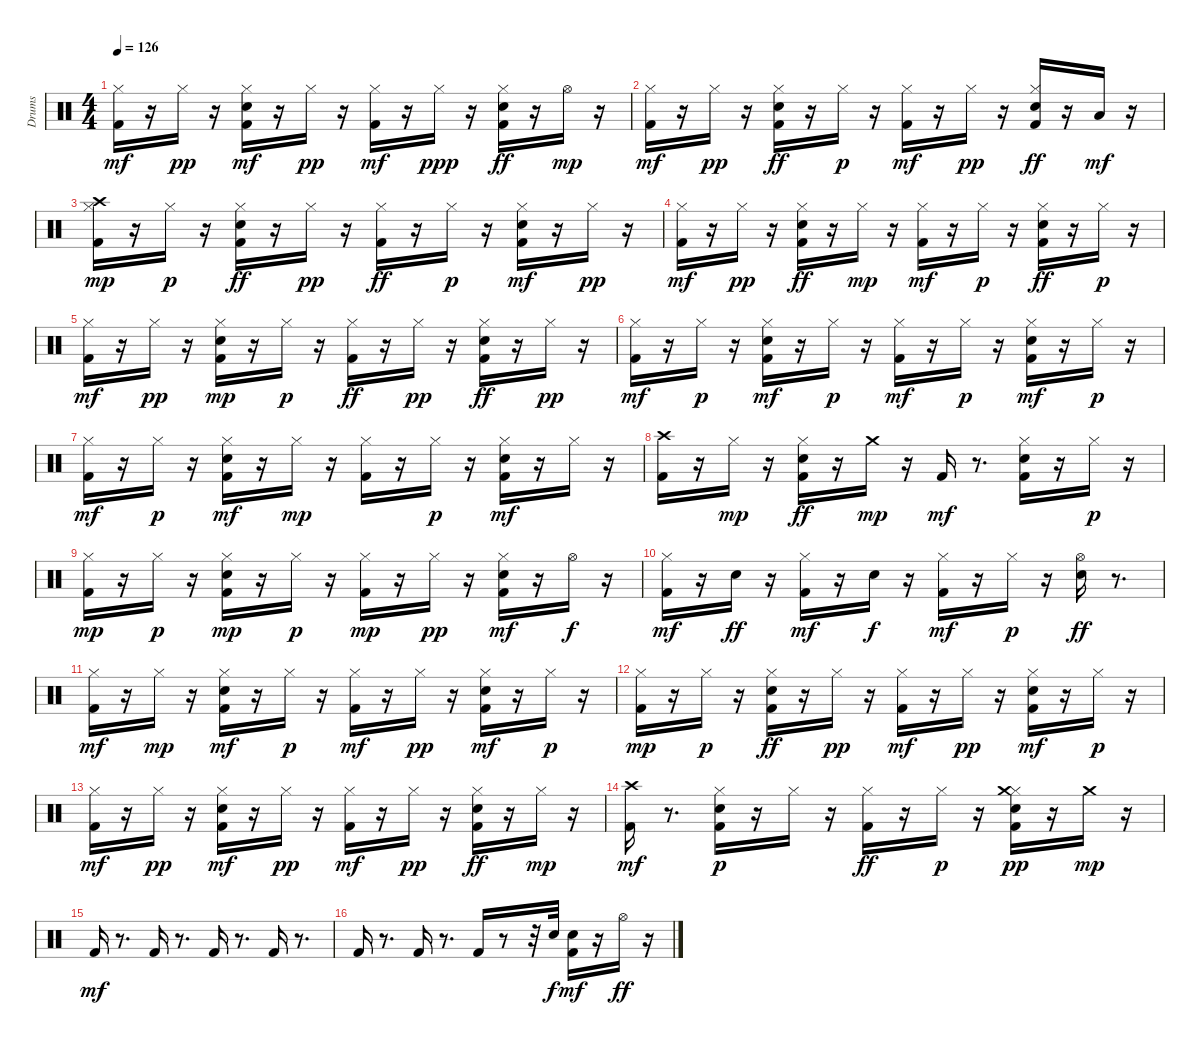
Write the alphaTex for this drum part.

\track ("Drums" "Drums") {instrument percussion}
\staff {score}
\articulation defaults
\ts (4 4)
\tempo 126
\clef neutral
\ks c
("Kick (hit) 2" "Hi-Hat (closed)").16{dy mf} r.16 "Hi-Hat (closed)".16{dy pp} r.16 ("Snare (hit) 2" "Hi-Hat (closed)" "Kick (hit) 2").16{dy mf} r.16 "Hi-Hat (closed)".16{dy pp} r.16 ("Hi-Hat (closed)" "Kick (hit) 2").16{dy mf} r.16 "Hi-Hat (closed)".16{dy ppp} r.16 ("Hi-Hat (closed)" "Kick (hit) 2" "Snare (hit) 2").16{dy ff} r.16 "Hi-Hat (open)".16{dy mp} r.16 |
("Kick (hit) 2" "Hi-Hat (closed)").16{dy mf} r.16 "Hi-Hat (closed)".16{dy pp} r.16 ("Kick (hit) 2" "Snare (hit) 2" "Hi-Hat (closed)").16{dy ff} r.16 "Hi-Hat (closed)".16{dy p} r.16 ("Kick (hit) 2" "Hi-Hat (closed)").16{dy mf} r.16 "Hi-Hat (closed)".16{dy pp} r.16 ("Kick (hit) 2" "Snare (hit) 2" "Hi-Hat (closed)").16{dy ff} r.16 "Low Floor Tom (hit)".16{dy mf} r.16 |
("Crash high (hit)" "Kick (hit) 2" "Hi-Hat (closed)").16{dy mp} r.16 "Hi-Hat (closed)".16{dy p} r.16 ("Kick (hit) 2" "Hi-Hat (closed)" "Snare (hit) 2").16{dy ff} r.16 "Hi-Hat (closed)".16{dy pp} r.16 ("Kick (hit) 2" "Hi-Hat (closed)").16{dy ff} r.16 "Hi-Hat (closed)".16{dy p} r.16 ("Kick (hit) 2" "Snare (hit) 2" "Hi-Hat (closed)").16{dy mf} r.16 "Hi-Hat (closed)".16{dy pp} r.16 |
("Kick (hit) 2" "Hi-Hat (closed)").16{dy mf} r.16 "Hi-Hat (closed)".16{dy pp} r.16 ("Kick (hit) 2" "Snare (hit) 2" "Hi-Hat (closed)").16{dy ff} r.16 "Hi-Hat (closed)".16{dy mp} r.16 ("Kick (hit) 2" "Hi-Hat (closed)").16{dy mf} r.16 "Hi-Hat (closed)".16{dy p} r.16 ("Hi-Hat (closed)" "Kick (hit) 2" "Snare (hit) 2").16{dy ff} r.16 "Hi-Hat (closed)".16{dy p} r.16 |
("Kick (hit) 2" "Hi-Hat (closed)").16{dy mf} r.16 "Hi-Hat (closed)".16{dy pp} r.16 ("Snare (hit) 2" "Kick (hit) 2" "Hi-Hat (closed)").16{dy mp} r.16 "Hi-Hat (closed)".16{dy p} r.16 ("Kick (hit) 2" "Hi-Hat (closed)").16{dy ff} r.16 "Hi-Hat (closed)".16{dy pp} r.16 ("Kick (hit) 2" "Snare (hit) 2" "Hi-Hat (closed)").16{dy ff} r.16 "Hi-Hat (closed)".16{dy pp} r.16 |
("Kick (hit) 2" "Hi-Hat (closed)").16{dy mf} r.16 "Hi-Hat (closed)".16{dy p} r.16 ("Hi-Hat (closed)" "Kick (hit) 2" "Snare (hit) 2").16{dy mf} r.16 "Hi-Hat (closed)".16{dy p} r.16 ("Kick (hit) 2" "Hi-Hat (closed)").16{dy mf} r.16 "Hi-Hat (closed)".16{dy p} r.16 ("Kick (hit) 2" "Snare (hit) 2" "Hi-Hat (closed)").16{dy mf} r.16 "Hi-Hat (closed)".16{dy p} r.16 |
("Kick (hit) 2" "Hi-Hat (closed)").16{dy mf} r.16 "Hi-Hat (closed)".16{dy p} r.16 ("Snare (hit) 2" "Kick (hit) 2" "Hi-Hat (closed)").16{dy mf} r.16 "Hi-Hat (closed)".16{dy mp} r.16 ("Kick (hit) 2" "Hi-Hat (closed)").16 r.16 "Hi-Hat (closed)".16{dy p} r.16 ("Snare (hit) 2" "Kick (hit) 2" "Hi-Hat (closed)").16{dy mf} r.16 "Hi-Hat (closed)".16 r.16 |
("Crash high (hit)" "Kick (hit) 2").16 r.16 "Hi-Hat (closed)".16{dy mp} r.16 ("Hi-Hat (closed)" "Kick (hit) 2" "Snare (hit) 2").16{dy ff} r.16 "Crash medium (hit)".16{dy mp} r.16 "Kick (hit) 2".16{dy mf} r.8{d} ("Hi-Hat (closed)" "Snare (hit) 2" "Kick (hit) 2").16 r.16 "Hi-Hat (closed)".16{dy p} r.16 |
("Hi-Hat (closed)" "Kick (hit) 2").16{dy mp} r.16 "Hi-Hat (closed)".16{dy p} r.16 ("Hi-Hat (closed)" "Kick (hit) 2" "Snare (hit) 2").16{dy mp} r.16 "Hi-Hat (closed)".16{dy p} r.16 ("Hi-Hat (closed)" "Kick (hit) 2").16{dy mp} r.16 "Hi-Hat (closed)".16{dy pp} r.16 ("Snare (hit) 2" "Hi-Hat (closed)" "Kick (hit) 2").16{dy mf} r.16 "Hi-Hat (open)".16{dy f} r.16 |
("Hi-Hat (closed)" "Kick (hit) 2").16{dy mf} r.16 "Snare (hit) 2".16{dy ff} r.16 ("Hi-Hat (closed)" "Kick (hit) 2").16{dy mf} r.16 "Snare (hit) 2".16{dy f} r.16 ("Kick (hit) 2" "Hi-Hat (closed)").16{dy mf} r.16 "Hi-Hat (closed)".16{dy p} r.16 ("Snare (hit) 2" "Hi-Hat (open)").16{dy ff} r.8{d} |
("Kick (hit) 2" "Hi-Hat (closed)").16{dy mf} r.16 "Hi-Hat (closed)".16{dy mp} r.16 ("Snare (hit) 2" "Hi-Hat (closed)" "Kick (hit) 2").16{dy mf} r.16 "Hi-Hat (closed)".16{dy p} r.16 ("Hi-Hat (closed)" "Kick (hit) 2").16{dy mf} r.16 "Hi-Hat (closed)".16{dy pp} r.16 ("Snare (hit) 2" "Kick (hit) 2" "Hi-Hat (closed)").16{dy mf} r.16 "Hi-Hat (closed)".16{dy p} r.16 |
("Kick (hit) 2" "Hi-Hat (closed)").16{dy mp} r.16 "Hi-Hat (closed)".16{dy p} r.16 ("Kick (hit) 2" "Snare (hit) 2" "Hi-Hat (closed)").16{dy ff} r.16 "Hi-Hat (closed)".16{dy pp} r.16 ("Kick (hit) 2" "Hi-Hat (closed)").16{dy mf} r.16 "Hi-Hat (closed)".16{dy pp} r.16 ("Snare (hit) 2" "Kick (hit) 2" "Hi-Hat (closed)").16{dy mf} r.16 "Hi-Hat (closed)".16{dy p} r.16 |
("Hi-Hat (closed)" "Kick (hit) 2").16{dy mf} r.16 "Hi-Hat (closed)".16{dy pp} r.16 ("Kick (hit) 2" "Hi-Hat (closed)" "Snare (hit) 2").16{dy mf} r.16 "Hi-Hat (closed)".16{dy pp} r.16 ("Kick (hit) 2" "Hi-Hat (closed)").16{dy mf} r.16 "Hi-Hat (closed)".16{dy pp} r.16 ("Hi-Hat (closed)" "Kick (hit) 2" "Snare (hit) 2").16{dy ff} r.16 "Hi-Hat (closed)".16{dy mp} r.16 |
("Kick (hit) 2" "Crash high (hit)").16{dy mf} r.8{d} ("Kick (hit) 2" "Snare (hit) 2" "Hi-Hat (closed)").16{dy p} r.16 "Hi-Hat (closed)".16 r.16 ("Kick (hit) 2" "Hi-Hat (closed)").16{dy ff} r.16 "Hi-Hat (closed)".16{dy p} r.16 ("Snare (hit) 2" "Kick (hit) 2" "Hi-Hat (closed)" "Crash medium (hit)").16{dy pp} r.16 "Crash medium (hit)".16{dy mp} r.16 |
"Kick (hit) 2".16{dy mf} r.8{d} "Kick (hit) 2".16 r.8{d} "Kick (hit) 2".16 r.8{d} "Kick (hit) 2".16 r.8{d} |
"Kick (hit) 2".16 r.8{d} "Kick (hit) 2".16 r.8{d} "Kick (hit) 2".16 r.8 r.32 "Snare (hit) 2".32{dy f} ("Snare (hit) 2" "Kick (hit) 2").16{dy mf} r.16 "Hi-Hat (open)".16{dy ff} r.16
